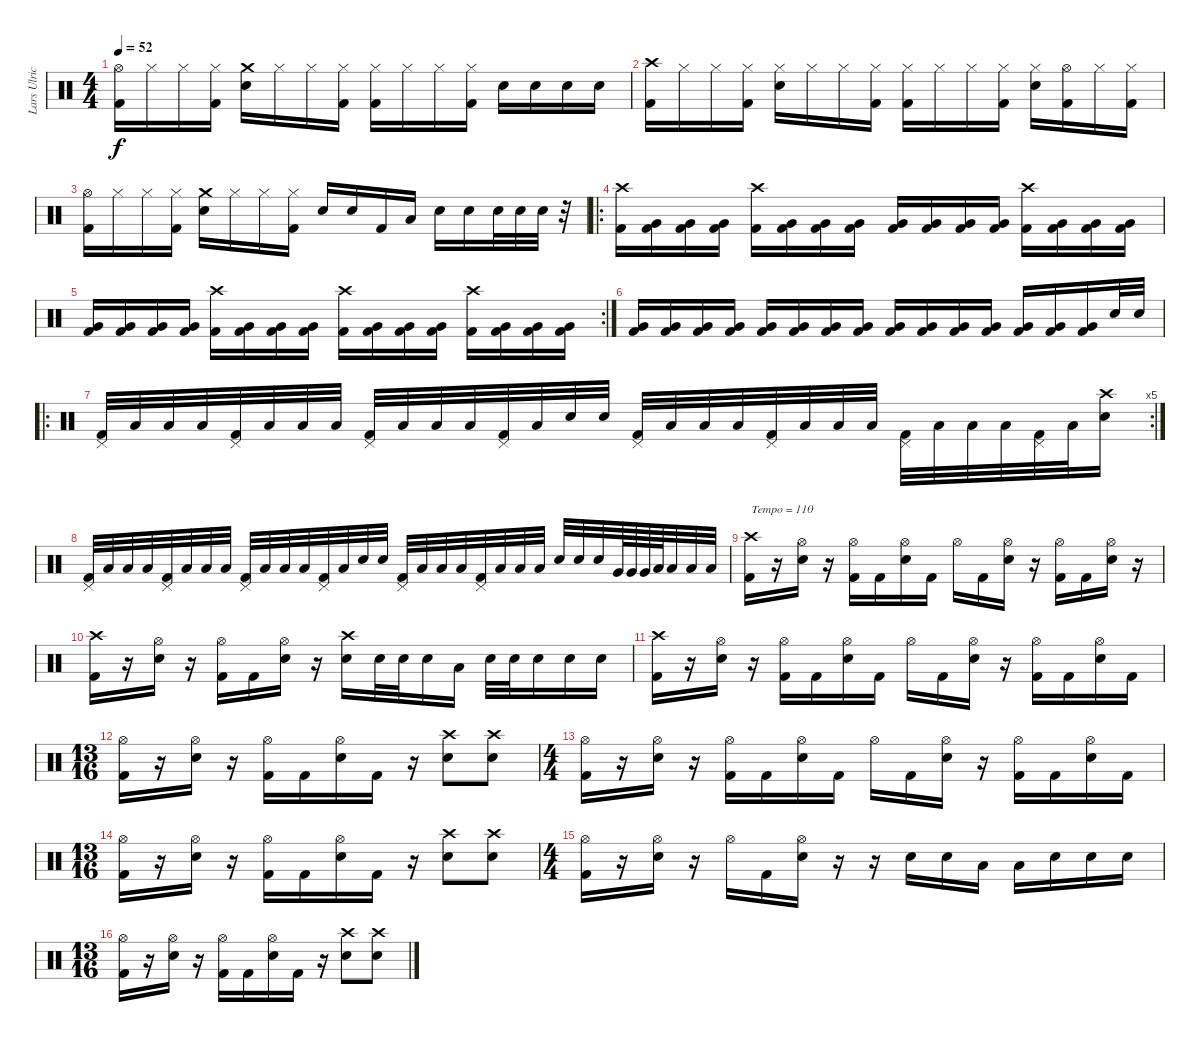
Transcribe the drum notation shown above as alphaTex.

\track ("Lars Ulrich" "Lars Ulric") {instrument percussion}
\staff {score}
\articulation defaults
\ts (4 4)
\tempo 52
\clef neutral
\ks c
("Hi-Hat (open)" "Kick (hit) 2").16{dy f} "Hi-Hat (closed)".16 "Hi-Hat (closed)".16 ("Hi-Hat (closed)" "Kick (hit) 2").16 ("Crash medium (hit)" "Snare (hit) 2").16 "Hi-Hat (closed)".16 "Hi-Hat (closed)".16 ("Hi-Hat (closed)" "Kick (hit) 2").16 ("Hi-Hat (closed)" "Kick (hit) 2").16 "Hi-Hat (closed)".16 "Hi-Hat (closed)".16 ("Hi-Hat (closed)" "Kick (hit) 2").16 "Snare (hit) 2".16 "Snare (hit) 2".16 "Snare (hit) 2".16 "Snare (hit) 2".16 |
("Crash high (hit)" "Kick (hit) 2").16 "Hi-Hat (closed)".16 "Hi-Hat (closed)".16 ("Hi-Hat (closed)" "Kick (hit) 2").16 ("Hi-Hat (closed)" "Snare (hit) 2").16 "Hi-Hat (closed)".16 "Hi-Hat (closed)".16 ("Hi-Hat (closed)" "Kick (hit) 2").16 ("Hi-Hat (closed)" "Kick (hit) 2").16 "Hi-Hat (closed)".16 "Hi-Hat (closed)".16 ("Hi-Hat (closed)" "Kick (hit) 2").16 ("Hi-Hat (closed)" "Snare (hit) 2").16 ("Hi-Hat (open)" "Kick (hit) 2").16 "Hi-Hat (closed)".16 ("Hi-Hat (closed)" "Kick (hit) 2").16 |
("Hi-Hat (open)" "Kick (hit) 2").16 "Hi-Hat (closed)".16 "Hi-Hat (closed)".16 ("Hi-Hat (closed)" "Kick (hit) 2").16 ("Crash medium (hit)" "Snare (hit) 2").16 "Hi-Hat (closed)".16 "Hi-Hat (closed)".16 ("Hi-Hat (closed)" "Kick (hit) 2").16 "Snare (hit) 2".16 "Snare (hit) 2".16 "Kick (hit) 2".16 "Low Tom (hit)".16 "Snare (hit) 2".16 "Snare (hit) 2".16 "Snare (hit) 2".32 "Snare (hit) 2".32 "Snare (hit) 2".32 r.32 |
\ro
("Crash high (hit)" "Kick (hit) 2").16 ("Very Low Tom (hit)" "Kick (hit) 2").16 ("Very Low Tom (hit)" "Kick (hit) 2").16 ("Very Low Tom (hit)" "Kick (hit) 2").16 ("Crash high (hit)" "Kick (hit) 2").16 ("Very Low Tom (hit)" "Kick (hit) 2").16 ("Very Low Tom (hit)" "Kick (hit) 2").16 ("Very Low Tom (hit)" "Kick (hit) 2").16 ("Very Low Tom (hit)" "Kick (hit) 2").16 ("Very Low Tom (hit)" "Kick (hit) 2").16 ("Very Low Tom (hit)" "Kick (hit) 2").16 ("Very Low Tom (hit)" "Kick (hit) 2").16 ("Crash high (hit)" "Kick (hit) 2").16 ("Very Low Tom (hit)" "Kick (hit) 2").16 ("Very Low Tom (hit)" "Kick (hit) 2").16 ("Very Low Tom (hit)" "Kick (hit) 2").16 |
\rc 2
("Very Low Tom (hit)" "Kick (hit) 2").16 ("Very Low Tom (hit)" "Kick (hit) 2").16 ("Very Low Tom (hit)" "Kick (hit) 2").16 ("Very Low Tom (hit)" "Kick (hit) 2").16 ("Crash high (hit)" "Kick (hit) 2").16 ("Very Low Tom (hit)" "Kick (hit) 2").16 ("Very Low Tom (hit)" "Kick (hit) 2").16 ("Very Low Tom (hit)" "Kick (hit) 2").16 ("Crash high (hit)" "Kick (hit) 2").16 ("Very Low Tom (hit)" "Kick (hit) 2").16 ("Very Low Tom (hit)" "Kick (hit) 2").16 ("Very Low Tom (hit)" "Kick (hit) 2").16 ("Crash high (hit)" "Kick (hit) 2").16 ("Very Low Tom (hit)" "Kick (hit) 2").16 ("Very Low Tom (hit)" "Kick (hit) 2").16 ("Very Low Tom (hit)" "Kick (hit) 2").16 |
("Very Low Tom (hit)" "Kick (hit) 2").16 ("Very Low Tom (hit)" "Kick (hit) 2").16 ("Very Low Tom (hit)" "Kick (hit) 2").16 ("Very Low Tom (hit)" "Kick (hit) 2").16 ("Very Low Tom (hit)" "Kick (hit) 2").16 ("Very Low Tom (hit)" "Kick (hit) 2").16 ("Very Low Tom (hit)" "Kick (hit) 2").16 ("Very Low Tom (hit)" "Kick (hit) 2").16 ("Very Low Tom (hit)" "Kick (hit) 2").16 ("Very Low Tom (hit)" "Kick (hit) 2").16 ("Very Low Tom (hit)" "Kick (hit) 2").16 ("Very Low Tom (hit)" "Kick (hit) 2").16 ("Very Low Tom (hit)" "Kick (hit) 2").16 ("Very Low Tom (hit)" "Kick (hit) 2").16 ("Very Low Tom (hit)" "Kick (hit) 2").16 "Snare (hit) 2".32 "Snare (hit) 2".32 |
\ro
\rc 5
("Pedal Hi-Hat (hit)" "Kick (hit) 2").32 "Low Tom (hit)".32 "Low Tom (hit)".32 "Low Tom (hit)".32 ("Pedal Hi-Hat (hit)" "Kick (hit) 2").32 "Low Tom (hit)".32 "Low Tom (hit)".32 "Low Tom (hit)".32 ("Pedal Hi-Hat (hit)" "Kick (hit) 2").32 "Low Tom (hit)".32 "Low Tom (hit)".32 "Low Tom (hit)".32 ("Pedal Hi-Hat (hit)" "Kick (hit) 2").32 "Low Tom (hit)".32 "Snare (hit) 2".32 "Snare (hit) 2".32 ("Pedal Hi-Hat (hit)" "Kick (hit) 2").32 "Low Tom (hit)".32 "Low Tom (hit)".32 "Low Tom (hit)".32 ("Pedal Hi-Hat (hit)" "Kick (hit) 2").32 "Low Tom (hit)".32 "Low Tom (hit)".32 "Low Tom (hit)".32 ("Pedal Hi-Hat (hit)" "Kick (hit) 2").32 "Low Tom (hit)".32 "Low Tom (hit)".32 "Low Tom (hit)".32 ("Pedal Hi-Hat (hit)" "Kick (hit) 2").32 "Low Tom (hit)".32 ("Crash high (hit)" "Snare (hit) 2").16 |
("Pedal Hi-Hat (hit)" "Kick (hit) 2").32 "Low Tom (hit)".32 "Low Tom (hit)".32 "Low Tom (hit)".32 ("Pedal Hi-Hat (hit)" "Kick (hit) 2").32 "Low Tom (hit)".32 "Low Tom (hit)".32 "Low Tom (hit)".32 ("Pedal Hi-Hat (hit)" "Kick (hit) 2").32 "Low Tom (hit)".32 "Low Tom (hit)".32 "Low Tom (hit)".32 ("Pedal Hi-Hat (hit)" "Kick (hit) 2").32 "Low Tom (hit)".32 "Snare (hit) 2".32 "Snare (hit) 2".32 ("Pedal Hi-Hat (hit)" "Kick (hit) 2").32 "Low Tom (hit)".32 "Low Tom (hit)".32 "Low Tom (hit)".32 ("Pedal Hi-Hat (hit)" "Kick (hit) 2").32 "Low Tom (hit)".32 "Low Tom (hit)".32 "Low Tom (hit)".32 "Snare (hit) 2".32 "Snare (hit) 2".32 "Snare (hit) 2".32 "Very Low Tom (hit)".64 "Very Low Tom (hit)".64 "Very Low Tom (hit)".64 "Low Tom (hit)".64 "Low Tom (hit)".32 "Low Tom (hit)".32 "Low Tom (hit)".32 |
("Crash high (hit)" "Kick (hit) 2").16{txt "Tempo = 110"} r.16 ("Hi-Hat (open)" "Snare (hit) 2").16 r.16 ("Hi-Hat (open)" "Kick (hit) 2").16 "Kick (hit) 2".16 ("Hi-Hat (open)" "Snare (hit) 2").16 "Kick (hit) 2".16 "Hi-Hat (open)".16 "Kick (hit) 2".16 ("Hi-Hat (open)" "Snare (hit) 2").16 r.16 ("Hi-Hat (open)" "Kick (hit) 2").16 "Kick (hit) 2".16 ("Hi-Hat (open)" "Snare (hit) 2").16 r.16 |
("Crash high (hit)" "Kick (hit) 2").16 r.16 ("Hi-Hat (open)" "Snare (hit) 2").16 r.16 ("Hi-Hat (open)" "Kick (hit) 2").16 "Kick (hit) 2".16 ("Hi-Hat (open)" "Snare (hit) 2").16 r.16 ("Crash high (hit)" "Snare (hit) 2").16 "Snare (hit) 2".32 "Snare (hit) 2".32 "Snare (hit) 2".16 "Low Tom (hit)".16 "Snare (hit) 2".32 "Snare (hit) 2".32 "Snare (hit) 2".16 "Snare (hit) 2".16 "Snare (hit) 2".16 |
("Crash high (hit)" "Kick (hit) 2").16 r.16 ("Hi-Hat (open)" "Snare (hit) 2").16 r.16 ("Hi-Hat (open)" "Kick (hit) 2").16 "Kick (hit) 2".16 ("Hi-Hat (open)" "Snare (hit) 2").16 "Kick (hit) 2".16 "Hi-Hat (open)".16 "Kick (hit) 2".16 ("Hi-Hat (open)" "Snare (hit) 2").16 r.16 ("Hi-Hat (open)" "Kick (hit) 2").16 "Kick (hit) 2".16 ("Hi-Hat (open)" "Snare (hit) 2").16 "Kick (hit) 2".16 |
\ts (13 16)
("Hi-Hat (open)" "Kick (hit) 2").16 r.16 ("Hi-Hat (open)" "Snare (hit) 2").16 r.16 ("Hi-Hat (open)" "Kick (hit) 2").16 "Kick (hit) 2".16 ("Hi-Hat (open)" "Snare (hit) 2").16 "Kick (hit) 2".16 r.16 ("Crash high (hit)" "Snare (hit) 2").8 ("Crash high (hit)" "Snare (hit) 2").8 |
\ts (4 4)
("Hi-Hat (open)" "Kick (hit) 2").16 r.16 ("Hi-Hat (open)" "Snare (hit) 2").16 r.16 ("Hi-Hat (open)" "Kick (hit) 2").16 "Kick (hit) 2".16 ("Hi-Hat (open)" "Snare (hit) 2").16 "Kick (hit) 2".16 "Hi-Hat (open)".16 "Kick (hit) 2".16 ("Hi-Hat (open)" "Snare (hit) 2").16 r.16 ("Hi-Hat (open)" "Kick (hit) 2").16 "Kick (hit) 2".16 ("Hi-Hat (open)" "Snare (hit) 2").16 "Kick (hit) 2".16 |
\ts (13 16)
("Hi-Hat (open)" "Kick (hit) 2").16 r.16 ("Hi-Hat (open)" "Snare (hit) 2").16 r.16 ("Hi-Hat (open)" "Kick (hit) 2").16 "Kick (hit) 2".16 ("Hi-Hat (open)" "Snare (hit) 2").16 "Kick (hit) 2".16 r.16 ("Crash high (hit)" "Snare (hit) 2").8 ("Crash high (hit)" "Snare (hit) 2").8 |
\ts (4 4)
("Hi-Hat (open)" "Kick (hit) 2").16 r.16 ("Hi-Hat (open)" "Snare (hit) 2").16 r.16 "Hi-Hat (open)".16 "Kick (hit) 2".16 ("Hi-Hat (open)" "Snare (hit) 2").16 r.16 r.16 "Snare (hit) 2".16 "Snare (hit) 2".16 "Low Tom (hit)".16 "Low Tom (hit)".16 "Snare (hit) 2".16 "Snare (hit) 2".16 "Snare (hit) 2".16 |
\ts (13 16)
("Hi-Hat (open)" "Kick (hit) 2").16 r.16 ("Hi-Hat (open)" "Snare (hit) 2").16 r.16 ("Hi-Hat (open)" "Kick (hit) 2").16 "Kick (hit) 2".16 ("Hi-Hat (open)" "Snare (hit) 2").16 "Kick (hit) 2".16 r.16 ("Crash high (hit)" "Snare (hit) 2").8 ("Crash high (hit)" "Snare (hit) 2").8
